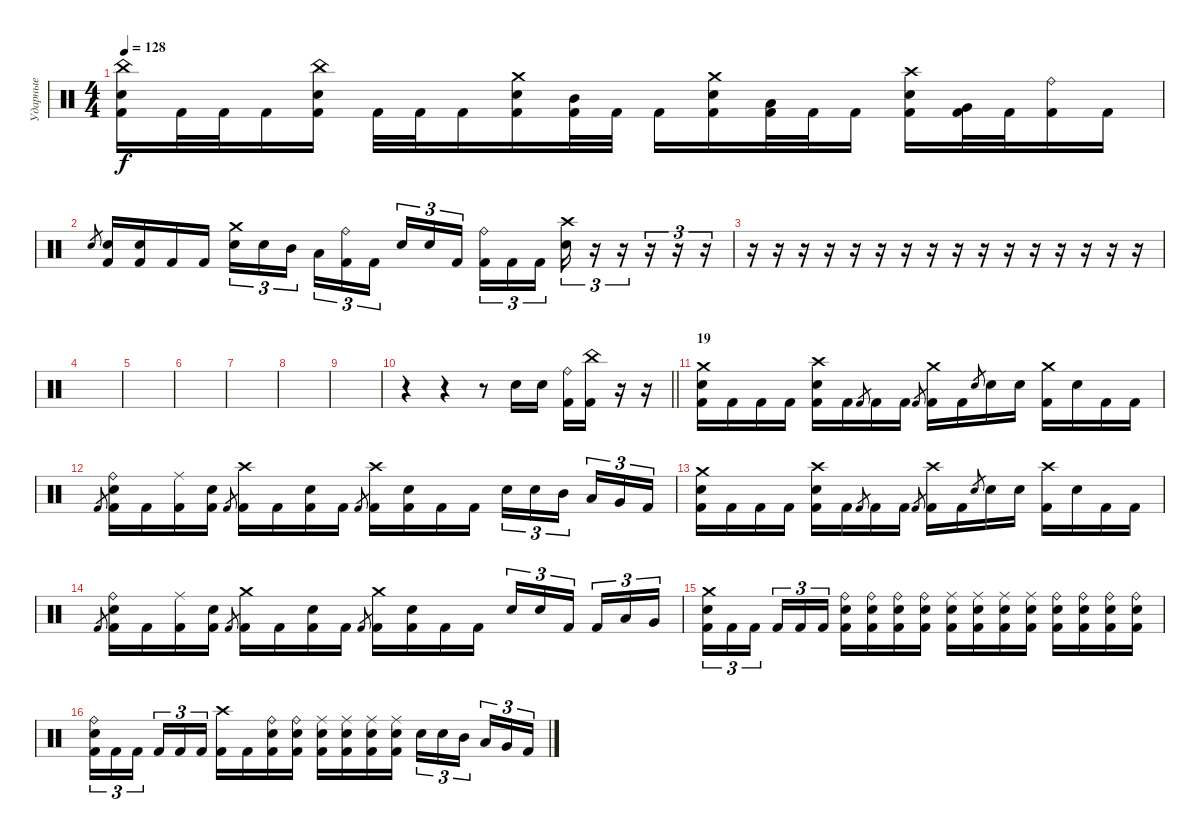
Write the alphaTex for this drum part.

\track ("Ударные" "Ударные") {instrument percussion}
\staff {score}
\articulation defaults
\ts (4 4)
\tempo 128
\clef neutral
\ks c
("China (hit)" "Electric Snare (hit)" "Kick (hit) 2").16{dy f} "Kick (hit) 2".32 "Kick (hit) 2".32 "Kick (hit) 2".16 ("China (hit)" "Electric Snare (hit)" "Kick (hit) 2").16 "Kick (hit) 2".32 "Kick (hit) 2".32 "Kick (hit) 2".16 ("Crash medium (hit)" "Electric Snare (hit)" "Kick (hit) 2").16 ("Mid Tom (hit)" "Kick (hit) 2").32 "Kick (hit) 2".32 "Kick (hit) 2".16 ("Crash medium (hit)" "Electric Snare (hit)" "Kick (hit) 2").16 ("Low Tom (hit)" "Kick (hit) 2").32 "Kick (hit) 2".32 "Kick (hit) 2".16 ("Crash high (hit)" "Electric Snare (hit)" "Kick (hit) 2").16 ("Very Low Tom (hit)" "Kick (hit) 2").32 "Kick (hit) 2".32 ("Ride (bell)" "Kick (hit) 2").16 "Kick (hit) 2".16 |
"Electric Snare (hit)".8{gr} ("Electric Snare (hit)" "Kick (hit) 2").16 ("Electric Snare (hit)" "Kick (hit) 2").16 "Kick (hit) 2".16 "Kick (hit) 2".16 ("Crash medium (hit)" "Electric Snare (hit)").16{tu (3 2)} "Electric Snare (hit)".16{tu (3 2)} "Mid Tom (hit)".16{tu (3 2) beam splitsecondary} "Low Tom (hit)".16{tu (3 2)} ("Ride (bell)" "Kick (hit) 2").16{tu (3 2)} "Kick (hit) 2".16{tu (3 2)} "Electric Snare (hit)".16{tu (3 2)} "Electric Snare (hit)".16{tu (3 2)} "Kick (hit) 2".16{tu (3 2) beam splitsecondary} ("Ride (bell)" "Kick (hit) 2").16{tu (3 2)} "Kick (hit) 2".16{tu (3 2)} "Kick (hit) 2".16{tu (3 2)} ("Crash high (hit)" "Electric Snare (hit)").16{tu (3 2)} r.16{tu (3 2)} r.16{tu (3 2)} r.16{tu (3 2)} r.16{tu (3 2)} r.16{tu (3 2)} |
r.16 r.16 r.16 r.16 r.16 r.16 r.16 r.16 r.16 r.16 r.16 r.16 r.16 r.16 r.16 r.16 |
|
|
|
|
|
|
\barLineRight lightlight
r.4 r.4 r.8 "Electric Snare (hit)".16 "Electric Snare (hit)".16 ("Ride (bell)" "Kick (hit) 2").16 ("China (hit)" "Kick (hit) 2").16 r.16 r.16 |
\section ("" "19")
("Crash medium (hit)" "Electric Snare (hit)" "Kick (hit) 2").16 "Kick (hit) 2".16 "Kick (hit) 2".16 "Kick (hit) 2".16 ("Crash high (hit)" "Electric Snare (hit)" "Kick (hit) 2").16 "Kick (hit) 2".16 "Kick (hit) 2".8{gr} "Kick (hit) 2".16 "Kick (hit) 2".16 "Kick (hit) 2".8{gr} ("Crash medium (hit)" "Kick (hit) 2").16 "Kick (hit) 2".16 "Electric Snare (hit)".8{gr} "Electric Snare (hit)".16 "Electric Snare (hit)".16 ("Crash medium (hit)" "Kick (hit) 2").16 "Electric Snare (hit)".16 "Kick (hit) 2".16 "Kick (hit) 2".16 |
"Kick (hit) 2".8{gr} ("Ride (bell)" "Electric Snare (hit)" "Kick (hit) 2").16 "Kick (hit) 2".16 ("Ride (middle)" "Kick (hit) 2").16 ("Electric Snare (hit)" "Kick (hit) 2").16 "Kick (hit) 2".8{gr} ("Crash high (hit)" "Kick (hit) 2").16 "Kick (hit) 2".16 ("Electric Snare (hit)" "Kick (hit) 2").16 "Kick (hit) 2".16 "Kick (hit) 2".8{gr} ("Crash high (hit)" "Kick (hit) 2").16 ("Electric Snare (hit)" "Kick (hit) 2").16 "Kick (hit) 2".16 "Kick (hit) 2".16 "Electric Snare (hit)".16{tu (3 2)} "Electric Snare (hit)".16{tu (3 2)} "Mid Tom (hit)".16{tu (3 2) beam splitsecondary} "Low Tom (hit)".16{tu (3 2)} "Very Low Tom (hit)".16{tu (3 2)} "Kick (hit) 2".16{tu (3 2)} |
("Crash medium (hit)" "Electric Snare (hit)" "Kick (hit) 2").16 "Kick (hit) 2".16 "Kick (hit) 2".16 "Kick (hit) 2".16 ("Crash high (hit)" "Electric Snare (hit)" "Kick (hit) 2").16 "Kick (hit) 2".16 "Kick (hit) 2".8{gr} "Kick (hit) 2".16 "Kick (hit) 2".16 "Kick (hit) 2".8{gr} ("Crash high (hit)" "Kick (hit) 2").16 "Kick (hit) 2".16 "Electric Snare (hit)".8{gr} "Electric Snare (hit)".16 "Electric Snare (hit)".16 ("Crash high (hit)" "Kick (hit) 2").16 "Electric Snare (hit)".16 "Kick (hit) 2".16 "Kick (hit) 2".16 |
"Kick (hit) 2".8{gr} ("Ride (bell)" "Electric Snare (hit)" "Kick (hit) 2").16 "Kick (hit) 2".16 ("Ride (middle)" "Kick (hit) 2").16 ("Electric Snare (hit)" "Kick (hit) 2").16 "Kick (hit) 2".8{gr} ("Crash medium (hit)" "Kick (hit) 2").16 "Kick (hit) 2".16 ("Electric Snare (hit)" "Kick (hit) 2").16 "Kick (hit) 2".16 "Kick (hit) 2".8{gr} ("Crash medium (hit)" "Kick (hit) 2").16 ("Electric Snare (hit)" "Kick (hit) 2").16 "Kick (hit) 2".16 "Kick (hit) 2".16 "Electric Snare (hit)".16{tu (3 2)} "Electric Snare (hit)".16{tu (3 2)} "Kick (hit) 2".16{tu (3 2) beam splitsecondary} "Kick (hit) 2".16{tu (3 2)} "Low Tom (hit)".16{tu (3 2)} "Very Low Tom (hit)".16{tu (3 2)} |
("Crash medium (hit)" "Electric Snare (hit)" "Kick (hit) 2").16{tu (3 2)} "Kick (hit) 2".16{tu (3 2)} "Kick (hit) 2".16{tu (3 2) beam splitsecondary} "Kick (hit) 2".16{tu (3 2)} "Kick (hit) 2".16{tu (3 2)} "Kick (hit) 2".16{tu (3 2)} ("Ride (bell)" "Electric Snare (hit)" "Kick (hit) 2").16 ("Ride (bell)" "Electric Snare (hit)" "Kick (hit) 2").16 ("Ride (bell)" "Electric Snare (hit)" "Kick (hit) 2").16 ("Ride (bell)" "Electric Snare (hit)" "Kick (hit) 2").16 ("Ride (middle)" "Electric Snare (hit)" "Kick (hit) 2").16 ("Ride (middle)" "Electric Snare (hit)" "Kick (hit) 2").16 ("Ride (middle)" "Electric Snare (hit)" "Kick (hit) 2").16 ("Ride (middle)" "Electric Snare (hit)" "Kick (hit) 2").16 ("Ride (bell)" "Electric Snare (hit)" "Kick (hit) 2").16 ("Ride (bell)" "Electric Snare (hit)" "Kick (hit) 2").16 ("Ride (bell)" "Electric Snare (hit)" "Kick (hit) 2").16 ("Ride (bell)" "Electric Snare (hit)" "Kick (hit) 2").16 |
("Ride (bell)" "Electric Snare (hit)" "Kick (hit) 2").16{tu (3 2)} "Kick (hit) 2".16{tu (3 2)} "Kick (hit) 2".16{tu (3 2) beam splitsecondary} "Kick (hit) 2".16{tu (3 2)} "Kick (hit) 2".16{tu (3 2)} "Kick (hit) 2".16{tu (3 2)} ("Crash high (hit)" "Kick (hit) 2").16 "Kick (hit) 2".16 ("Ride (bell)" "Electric Snare (hit)" "Kick (hit) 2").16 ("Ride (bell)" "Electric Snare (hit)" "Kick (hit) 2").16 ("Ride (middle)" "Electric Snare (hit)" "Kick (hit) 2").16 ("Ride (middle)" "Electric Snare (hit)" "Kick (hit) 2").16 ("Ride (middle)" "Electric Snare (hit)" "Kick (hit) 2").16 ("Ride (middle)" "Electric Snare (hit)" "Kick (hit) 2").16 "Electric Snare (hit)".16{tu (3 2)} "Electric Snare (hit)".16{tu (3 2)} "Mid Tom (hit)".16{tu (3 2) beam splitsecondary} "Low Tom (hit)".16{tu (3 2)} "Very Low Tom (hit)".16{tu (3 2)} "Kick (hit) 2".16{tu (3 2)}
